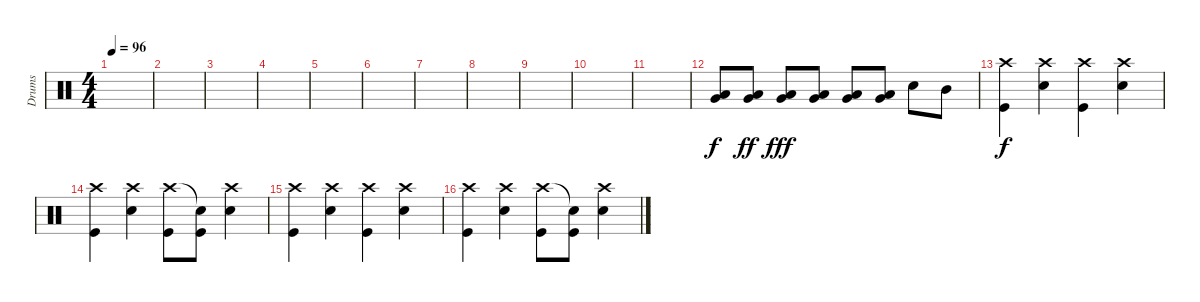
\track ("Drums" "Drums") {instrument percussion}
\staff {score}
\articulation defaults
\ts (4 4)
\tempo 96
\clef neutral
\ks c
|
|
|
|
|
|
|
|
|
|
|
("Low Tom (hit)" "Very Low Tom (hit)").8 ("Low Tom (hit)" "Very Low Tom (hit)").8{dy ff} ("Low Tom (hit)" "Very Low Tom (hit)").8{dy fff} ("Low Tom (hit)" "Very Low Tom (hit)").8 ("Low Tom (hit)" "Very Low Tom (hit)").8 ("Low Tom (hit)" "Very Low Tom (hit)").8 "Snare (hit) 2".8 "Mid Tom (hit)".8 |
("Kick (hit)" "Crash high (hit)").4{dy f} ("Snare (hit) 2" "Crash high (hit)").4 ("Kick (hit)" "Crash high (hit)").4 ("Snare (hit) 2" "Crash high (hit)").4 |
("Kick (hit)" "Crash high (hit)").4 ("Snare (hit) 2" "Crash high (hit)").4 ("Kick (hit)" "Crash high (hit)").8 ("Kick (hit)" "Snare (hit)"{t}).8 ("Snare (hit) 2" "Crash high (hit)").4 |
("Kick (hit)" "Crash high (hit)").4 ("Snare (hit) 2" "Crash high (hit)").4 ("Kick (hit)" "Crash high (hit)").4 ("Snare (hit) 2" "Crash high (hit)").4 |
("Kick (hit)" "Crash high (hit)").4 ("Snare (hit) 2" "Crash high (hit)").4 ("Kick (hit)" "Crash high (hit)").8 ("Kick (hit)" "Snare (hit)"{t}).8 ("Snare (hit) 2" "Crash high (hit)").4
